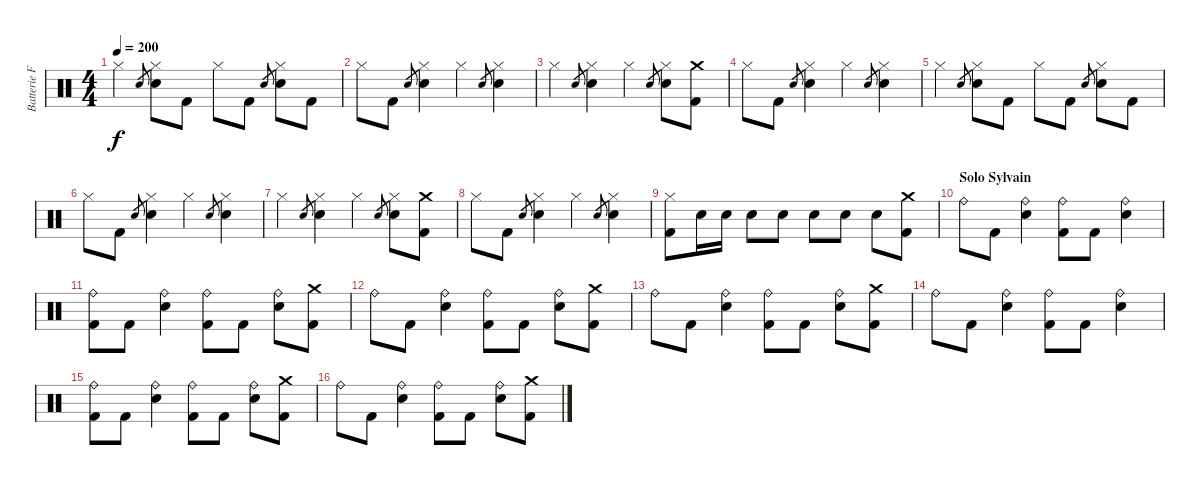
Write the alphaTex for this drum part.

\track ("Batterie Franck" "Batterie F") {instrument percussion}
\staff {score}
\articulation defaults
\ts (4 4)
\tempo 200
\clef neutral
\ks c "Hi-Hat (closed)".4{dy f} "Snare (hit) 2".8{gr}
("Hi-Hat (closed)" "Snare (hit) 2").8 "Kick (hit) 2".8 "Hi-Hat (closed)".8 "Kick (hit) 2".8 "Snare (hit) 2".8{gr} ("Hi-Hat (closed)" "Snare (hit) 2").8 "Kick (hit) 2".8 |
"Hi-Hat (closed)".8 "Kick (hit) 2".8 "Snare (hit) 2".8{gr} ("Hi-Hat (closed)" "Snare (hit) 2").4 "Hi-Hat (closed)".4 "Snare (hit) 2".8{gr} ("Hi-Hat (closed)" "Snare (hit) 2").4 |
"Hi-Hat (closed)".4 "Snare (hit) 2".8{gr} ("Hi-Hat (closed)" "Snare (hit) 2").4 "Hi-Hat (closed)".4 "Snare (hit) 2".8{gr} ("Hi-Hat (closed)" "Snare (hit) 2").8 ("Crash medium (hit)" "Kick (hit) 2").8 |
"Hi-Hat (closed)".8 "Kick (hit) 2".8 "Snare (hit) 2".8{gr} ("Hi-Hat (closed)" "Snare (hit) 2").4 "Hi-Hat (closed)".4 "Snare (hit) 2".8{gr} ("Hi-Hat (closed)" "Snare (hit) 2").4 |
"Hi-Hat (closed)".4 "Snare (hit) 2".8{gr} ("Hi-Hat (closed)" "Snare (hit) 2").8 "Kick (hit) 2".8 "Hi-Hat (closed)".8 "Kick (hit) 2".8 "Snare (hit) 2".8{gr} ("Hi-Hat (closed)" "Snare (hit) 2").8 "Kick (hit) 2".8 |
"Hi-Hat (closed)".8 "Kick (hit) 2".8 "Snare (hit) 2".8{gr} ("Hi-Hat (closed)" "Snare (hit) 2").4 "Hi-Hat (closed)".4 "Snare (hit) 2".8{gr} ("Hi-Hat (closed)" "Snare (hit) 2").4 |
"Hi-Hat (closed)".4 "Snare (hit) 2".8{gr} ("Hi-Hat (closed)" "Snare (hit) 2").4 "Hi-Hat (closed)".4 "Snare (hit) 2".8{gr} ("Hi-Hat (closed)" "Snare (hit) 2").8 ("Crash medium (hit)" "Kick (hit) 2").8 |
"Hi-Hat (closed)".8 "Kick (hit) 2".8 "Snare (hit) 2".8{gr} ("Hi-Hat (closed)" "Snare (hit) 2").4 "Hi-Hat (closed)".4 "Snare (hit) 2".8{gr} ("Hi-Hat (closed)" "Snare (hit) 2").4 |
("Hi-Hat (closed)" "Kick (hit) 2").8 "Snare (hit) 2".16 "Snare (hit) 2".16 "Snare (hit) 2".8 "Snare (hit) 2".8 "Snare (hit) 2".8 "Snare (hit) 2".8 "Snare (hit) 2".8 ("Crash medium (hit)" "Kick (hit) 2").8 |
\section ("" "Solo Sylvain")
"Ride (bell)".8 "Kick (hit) 2".8 ("Ride (bell)" "Snare (hit) 2").4 ("Ride (bell)" "Kick (hit) 2").8 "Kick (hit) 2".8 ("Ride (bell)" "Snare (hit) 2").4 |
("Ride (bell)" "Kick (hit) 2").8 "Kick (hit) 2".8 ("Ride (bell)" "Snare (hit) 2").4 ("Ride (bell)" "Kick (hit) 2").8 "Kick (hit) 2".8 ("Ride (bell)" "Snare (hit) 2").8 ("Crash medium (hit)" "Kick (hit) 2").8 |
"Ride (bell)".8 "Kick (hit) 2".8 ("Ride (bell)" "Snare (hit) 2").4 ("Ride (bell)" "Kick (hit) 2").8 "Kick (hit) 2".8 ("Ride (bell)" "Snare (hit) 2").8 ("Crash medium (hit)" "Kick (hit) 2").8 |
"Ride (bell)".8 "Kick (hit) 2".8 ("Ride (bell)" "Snare (hit) 2").4 ("Ride (bell)" "Kick (hit) 2").8 "Kick (hit) 2".8 ("Ride (bell)" "Snare (hit) 2").8 ("Crash medium (hit)" "Kick (hit) 2").8 |
"Ride (bell)".8 "Kick (hit) 2".8 ("Ride (bell)" "Snare (hit) 2").4 ("Ride (bell)" "Kick (hit) 2").8 "Kick (hit) 2".8 ("Ride (bell)" "Snare (hit) 2").4 |
("Ride (bell)" "Kick (hit) 2").8 "Kick (hit) 2".8 ("Ride (bell)" "Snare (hit) 2").4 ("Ride (bell)" "Kick (hit) 2").8 "Kick (hit) 2".8 ("Ride (bell)" "Snare (hit) 2").8 ("Crash medium (hit)" "Kick (hit) 2").8 |
"Ride (bell)".8 "Kick (hit) 2".8 ("Ride (bell)" "Snare (hit) 2").4 ("Ride (bell)" "Kick (hit) 2").8 "Kick (hit) 2".8 ("Ride (bell)" "Snare (hit) 2").8 ("Crash medium (hit)" "Kick (hit) 2").8
